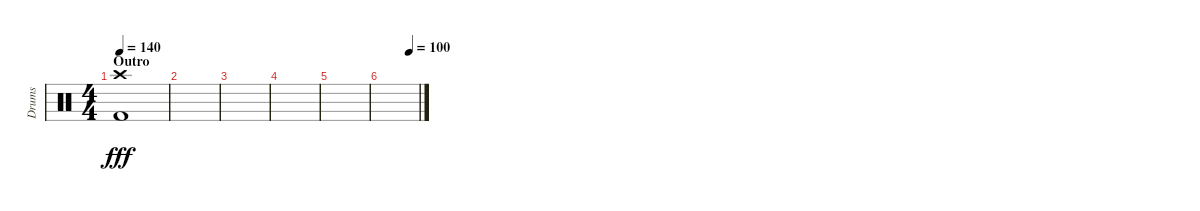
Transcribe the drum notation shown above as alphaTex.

\track ("Drums" "Drums") {instrument percussion}
\staff {score}
\articulation defaults
\ts (4 4)
\section ("" "Outro")
\tempo 140
\clef neutral
\ks c
("Crash high (hit)" "Kick (hit) 2").1{dy fff} |
|
|
|
|
\tempo (100 0.75)
